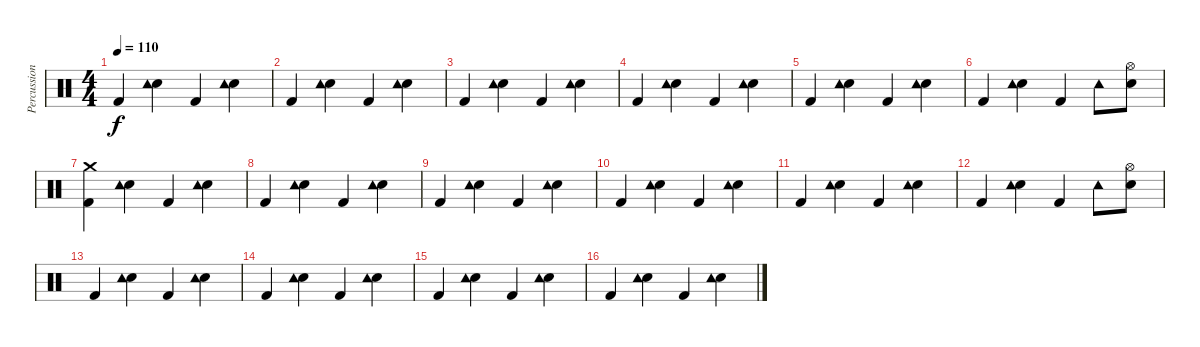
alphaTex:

\track ("Percussion" "Percussion") {instrument percussion}
\staff {score}
\articulation defaults
\ts (4 4)
\tempo 110
\clef neutral
\ks c "Kick (hit) 2".4{dy f}
("Electric Snare (hit)" "Tambourine (hit)").4 "Kick (hit) 2".4 ("Electric Snare (hit)" "Tambourine (hit)").4 |
"Kick (hit) 2".4 ("Electric Snare (hit)" "Tambourine (hit)").4 "Kick (hit) 2".4 ("Electric Snare (hit)" "Tambourine (hit)").4 |
"Kick (hit) 2".4 ("Electric Snare (hit)" "Tambourine (hit)").4 "Kick (hit) 2".4 ("Electric Snare (hit)" "Tambourine (hit)").4 |
"Kick (hit) 2".4 ("Electric Snare (hit)" "Tambourine (hit)").4 "Kick (hit) 2".4 ("Electric Snare (hit)" "Tambourine (hit)").4 |
"Kick (hit) 2".4 ("Electric Snare (hit)" "Tambourine (hit)").4 "Kick (hit) 2".4 ("Electric Snare (hit)" "Tambourine (hit)").4 |
"Kick (hit) 2".4 ("Electric Snare (hit)" "Tambourine (hit)").4 "Kick (hit) 2".4 "Tambourine (hit)".8 ("Electric Snare (hit)" "Hi-Hat (open)").8 |
("Kick (hit) 2" "Crash medium (hit)").4 ("Electric Snare (hit)" "Tambourine (hit)").4 "Kick (hit) 2".4 ("Electric Snare (hit)" "Tambourine (hit)").4 |
"Kick (hit) 2".4 ("Electric Snare (hit)" "Tambourine (hit)").4 "Kick (hit) 2".4 ("Electric Snare (hit)" "Tambourine (hit)").4 |
"Kick (hit) 2".4 ("Electric Snare (hit)" "Tambourine (hit)").4 "Kick (hit) 2".4 ("Electric Snare (hit)" "Tambourine (hit)").4 |
"Kick (hit) 2".4 ("Electric Snare (hit)" "Tambourine (hit)").4 "Kick (hit) 2".4 ("Electric Snare (hit)" "Tambourine (hit)").4 |
"Kick (hit) 2".4 ("Electric Snare (hit)" "Tambourine (hit)").4 "Kick (hit) 2".4 ("Electric Snare (hit)" "Tambourine (hit)").4 |
"Kick (hit) 2".4 ("Electric Snare (hit)" "Tambourine (hit)").4 "Kick (hit) 2".4 "Tambourine (hit)".8 ("Electric Snare (hit)" "Hi-Hat (open)").8 |
"Kick (hit) 2".4 ("Electric Snare (hit)" "Tambourine (hit)").4 "Kick (hit) 2".4 ("Electric Snare (hit)" "Tambourine (hit)").4 |
"Kick (hit) 2".4 ("Electric Snare (hit)" "Tambourine (hit)").4 "Kick (hit) 2".4 ("Electric Snare (hit)" "Tambourine (hit)").4 |
"Kick (hit) 2".4 ("Electric Snare (hit)" "Tambourine (hit)").4 "Kick (hit) 2".4 ("Electric Snare (hit)" "Tambourine (hit)").4 |
"Kick (hit) 2".4 ("Electric Snare (hit)" "Tambourine (hit)").4 "Kick (hit) 2".4 ("Electric Snare (hit)" "Tambourine (hit)").4
